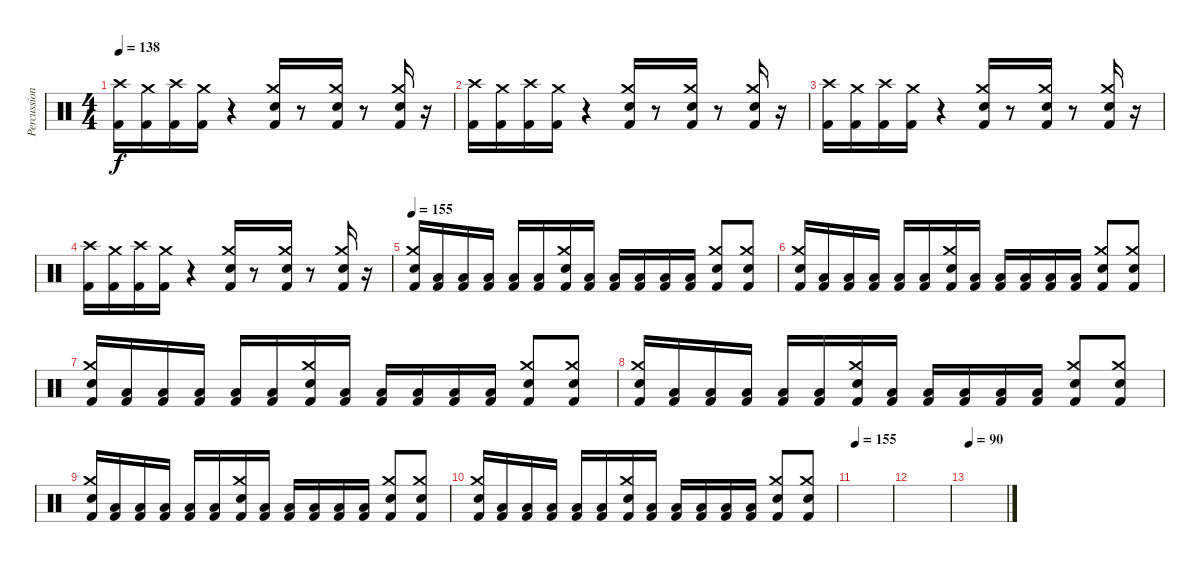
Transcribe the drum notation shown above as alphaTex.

\track ("Percussion" "Percussion") {instrument percussion}
\staff {score}
\articulation defaults
\ts (4 4)
\tempo 138
\clef neutral
\ks c
("Crash high (hit)" "Kick (hit) 2").16{dy f} ("Crash medium (hit)" "Kick (hit) 2").16 ("Crash high (hit)" "Kick (hit) 2").16 ("Crash medium (hit)" "Kick (hit) 2").16 r.4 ("Crash medium (hit)" "Electric Snare (hit)" "Kick (hit) 2").16 r.8 ("Crash medium (hit)" "Electric Snare (hit)" "Kick (hit) 2").16 r.8 ("Crash medium (hit)" "Electric Snare (hit)" "Kick (hit) 2").16 r.16 |
("Crash high (hit)" "Kick (hit) 2").16 ("Crash medium (hit)" "Kick (hit) 2").16 ("Crash high (hit)" "Kick (hit) 2").16 ("Crash medium (hit)" "Kick (hit) 2").16 r.4 ("Crash medium (hit)" "Electric Snare (hit)" "Kick (hit) 2").16 r.8 ("Crash medium (hit)" "Electric Snare (hit)" "Kick (hit) 2").16 r.8 ("Crash medium (hit)" "Electric Snare (hit)" "Kick (hit) 2").16 r.16 |
("Crash high (hit)" "Kick (hit) 2").16 ("Crash medium (hit)" "Kick (hit) 2").16 ("Crash high (hit)" "Kick (hit) 2").16 ("Crash medium (hit)" "Kick (hit) 2").16 r.4 ("Crash medium (hit)" "Electric Snare (hit)" "Kick (hit) 2").16 r.8 ("Crash medium (hit)" "Electric Snare (hit)" "Kick (hit) 2").16 r.8 ("Crash medium (hit)" "Electric Snare (hit)" "Kick (hit) 2").16 r.16 |
("Crash high (hit)" "Kick (hit) 2").16 ("Crash medium (hit)" "Kick (hit) 2").16 ("Crash high (hit)" "Kick (hit) 2").16 ("Crash medium (hit)" "Kick (hit) 2").16 r.4 ("Crash medium (hit)" "Electric Snare (hit)" "Kick (hit) 2").16 r.8 ("Crash medium (hit)" "Electric Snare (hit)" "Kick (hit) 2").16 r.8 ("Crash medium (hit)" "Electric Snare (hit)" "Kick (hit) 2").16 r.16 |
\tempo 155
("Crash medium (hit)" "Electric Snare (hit)" "Kick (hit) 2").16 ("Low Tom (hit)" "Kick (hit) 2").16 ("Low Tom (hit)" "Kick (hit) 2").16 ("Low Tom (hit)" "Kick (hit) 2").16 ("Low Tom (hit)" "Kick (hit) 2").16 ("Low Tom (hit)" "Kick (hit) 2").16 ("Crash medium (hit)" "Electric Snare (hit)" "Kick (hit) 2").16 ("Low Tom (hit)" "Kick (hit) 2").16 ("Low Tom (hit)" "Kick (hit) 2").16 ("Low Tom (hit)" "Kick (hit) 2").16 ("Low Tom (hit)" "Kick (hit) 2").16 ("Low Tom (hit)" "Kick (hit) 2").16 ("Crash medium (hit)" "Electric Snare (hit)" "Kick (hit) 2").8 ("Crash medium (hit)" "Electric Snare (hit)" "Kick (hit) 2").8 |
("Crash medium (hit)" "Electric Snare (hit)" "Kick (hit) 2").16 ("Low Tom (hit)" "Kick (hit) 2").16 ("Low Tom (hit)" "Kick (hit) 2").16 ("Low Tom (hit)" "Kick (hit) 2").16 ("Low Tom (hit)" "Kick (hit) 2").16 ("Low Tom (hit)" "Kick (hit) 2").16 ("Crash medium (hit)" "Electric Snare (hit)" "Kick (hit) 2").16 ("Low Tom (hit)" "Kick (hit) 2").16 ("Low Tom (hit)" "Kick (hit) 2").16 ("Low Tom (hit)" "Kick (hit) 2").16 ("Low Tom (hit)" "Kick (hit) 2").16 ("Low Tom (hit)" "Kick (hit) 2").16 ("Crash medium (hit)" "Electric Snare (hit)" "Kick (hit) 2").8 ("Crash medium (hit)" "Electric Snare (hit)" "Kick (hit) 2").8 |
("Crash medium (hit)" "Electric Snare (hit)" "Kick (hit) 2").16 ("Low Tom (hit)" "Kick (hit) 2").16 ("Low Tom (hit)" "Kick (hit) 2").16 ("Low Tom (hit)" "Kick (hit) 2").16 ("Low Tom (hit)" "Kick (hit) 2").16 ("Low Tom (hit)" "Kick (hit) 2").16 ("Crash medium (hit)" "Electric Snare (hit)" "Kick (hit) 2").16 ("Low Tom (hit)" "Kick (hit) 2").16 ("Low Tom (hit)" "Kick (hit) 2").16 ("Low Tom (hit)" "Kick (hit) 2").16 ("Low Tom (hit)" "Kick (hit) 2").16 ("Low Tom (hit)" "Kick (hit) 2").16 ("Crash medium (hit)" "Electric Snare (hit)" "Kick (hit) 2").8 ("Crash medium (hit)" "Electric Snare (hit)" "Kick (hit) 2").8 |
("Crash medium (hit)" "Electric Snare (hit)" "Kick (hit) 2").16 ("Low Tom (hit)" "Kick (hit) 2").16 ("Low Tom (hit)" "Kick (hit) 2").16 ("Low Tom (hit)" "Kick (hit) 2").16 ("Low Tom (hit)" "Kick (hit) 2").16 ("Low Tom (hit)" "Kick (hit) 2").16 ("Crash medium (hit)" "Electric Snare (hit)" "Kick (hit) 2").16 ("Low Tom (hit)" "Kick (hit) 2").16 ("Low Tom (hit)" "Kick (hit) 2").16 ("Low Tom (hit)" "Kick (hit) 2").16 ("Low Tom (hit)" "Kick (hit) 2").16 ("Low Tom (hit)" "Kick (hit) 2").16 ("Crash medium (hit)" "Electric Snare (hit)" "Kick (hit) 2").8 ("Crash medium (hit)" "Electric Snare (hit)" "Kick (hit) 2").8 |
("Crash medium (hit)" "Electric Snare (hit)" "Kick (hit) 2").16 ("Low Tom (hit)" "Kick (hit) 2").16 ("Low Tom (hit)" "Kick (hit) 2").16 ("Low Tom (hit)" "Kick (hit) 2").16 ("Low Tom (hit)" "Kick (hit) 2").16 ("Low Tom (hit)" "Kick (hit) 2").16 ("Crash medium (hit)" "Electric Snare (hit)" "Kick (hit) 2").16 ("Low Tom (hit)" "Kick (hit) 2").16 ("Low Tom (hit)" "Kick (hit) 2").16 ("Low Tom (hit)" "Kick (hit) 2").16 ("Low Tom (hit)" "Kick (hit) 2").16 ("Low Tom (hit)" "Kick (hit) 2").16 ("Crash medium (hit)" "Electric Snare (hit)" "Kick (hit) 2").8 ("Crash medium (hit)" "Electric Snare (hit)" "Kick (hit) 2").8 |
("Crash medium (hit)" "Electric Snare (hit)" "Kick (hit) 2").16 ("Low Tom (hit)" "Kick (hit) 2").16 ("Low Tom (hit)" "Kick (hit) 2").16 ("Low Tom (hit)" "Kick (hit) 2").16 ("Low Tom (hit)" "Kick (hit) 2").16 ("Low Tom (hit)" "Kick (hit) 2").16 ("Crash medium (hit)" "Electric Snare (hit)" "Kick (hit) 2").16 ("Low Tom (hit)" "Kick (hit) 2").16 ("Low Tom (hit)" "Kick (hit) 2").16 ("Low Tom (hit)" "Kick (hit) 2").16 ("Low Tom (hit)" "Kick (hit) 2").16 ("Low Tom (hit)" "Kick (hit) 2").16 ("Crash medium (hit)" "Electric Snare (hit)" "Kick (hit) 2").8 ("Crash medium (hit)" "Electric Snare (hit)" "Kick (hit) 2").8 |
\tempo 155
|
|
\tempo 90
